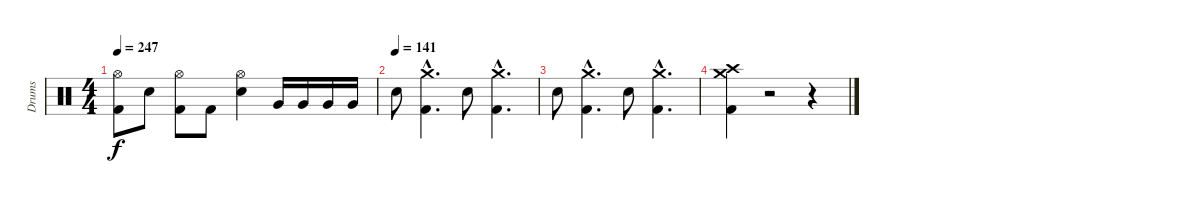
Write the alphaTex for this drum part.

\track ("Drums" "Drums") {instrument percussion}
\staff {score}
\articulation defaults
\ts (4 4)
\tempo 247
\clef neutral
\ks c
("Hi-Hat (open)" "Kick (hit) 2").8{dy f} "Electric Snare (hit)".8 ("Hi-Hat (open)" "Kick (hit) 2").8 "Kick (hit) 2".8 ("Hi-Hat (open)" "Electric Snare (hit)").4 "Very Low Tom (hit)".16 "Very Low Tom (hit)".16 "Very Low Tom (hit)".16 "Very Low Tom (hit)".16 |
\tempo (141)
"Electric Snare (hit)".8 ("Crash medium (hit)"{hac} "Kick (hit) 2"{hac}).4{d} "Electric Snare (hit)".8 ("Crash medium (hit)"{hac} "Kick (hit) 2"{hac}).4{d} |
"Electric Snare (hit)".8 ("Crash medium (hit)"{hac} "Kick (hit) 2"{hac}).4{d} "Electric Snare (hit)".8 ("Crash medium (hit)"{hac} "Kick (hit) 2"{hac}).4{d} |
("Crash high (hit)" "Crash medium (hit)" "Kick (hit) 2").4 r.2 r.4
